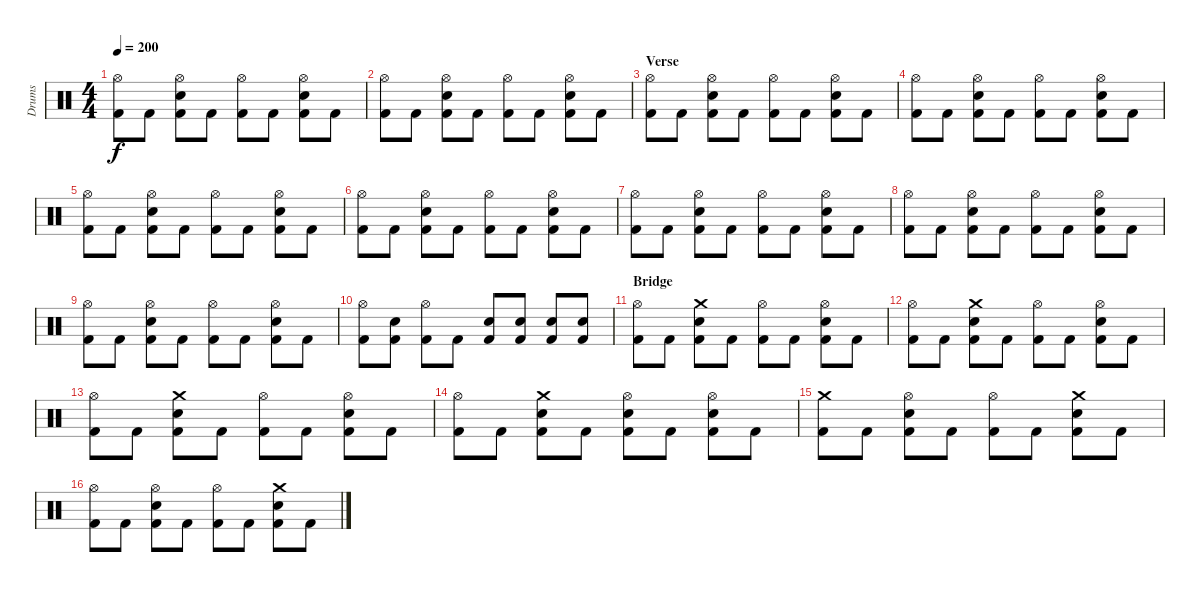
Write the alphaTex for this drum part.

\track ("Drums" "Drums") {instrument percussion}
\staff {score}
\articulation defaults
\ts (4 4)
\tempo 200
\clef neutral
\ks c
("Hi-Hat (open)" "Kick (hit) 2").8{dy f} "Kick (hit) 2".8 ("Hi-Hat (open)" "Snare (hit) 2" "Kick (hit) 2").8 "Kick (hit) 2".8 ("Hi-Hat (open)" "Kick (hit) 2").8 "Kick (hit) 2".8 ("Hi-Hat (open)" "Snare (hit) 2" "Kick (hit) 2").8 "Kick (hit) 2".8 |
("Hi-Hat (open)" "Kick (hit) 2").8 "Kick (hit) 2".8 ("Hi-Hat (open)" "Snare (hit) 2" "Kick (hit) 2").8 "Kick (hit) 2".8 ("Hi-Hat (open)" "Kick (hit) 2").8 "Kick (hit) 2".8 ("Hi-Hat (open)" "Snare (hit) 2" "Kick (hit) 2").8 "Kick (hit) 2".8 |
\section ("" "Verse")
("Hi-Hat (open)" "Kick (hit) 2").8 "Kick (hit) 2".8 ("Hi-Hat (open)" "Snare (hit) 2" "Kick (hit) 2").8 "Kick (hit) 2".8 ("Hi-Hat (open)" "Kick (hit) 2").8 "Kick (hit) 2".8 ("Hi-Hat (open)" "Snare (hit) 2" "Kick (hit) 2").8 "Kick (hit) 2".8 |
("Hi-Hat (open)" "Kick (hit) 2").8 "Kick (hit) 2".8 ("Hi-Hat (open)" "Snare (hit) 2" "Kick (hit) 2").8 "Kick (hit) 2".8 ("Hi-Hat (open)" "Kick (hit) 2").8 "Kick (hit) 2".8 ("Hi-Hat (open)" "Snare (hit) 2" "Kick (hit) 2").8 "Kick (hit) 2".8 |
("Hi-Hat (open)" "Kick (hit) 2").8 "Kick (hit) 2".8 ("Hi-Hat (open)" "Snare (hit) 2" "Kick (hit) 2").8 "Kick (hit) 2".8 ("Hi-Hat (open)" "Kick (hit) 2").8 "Kick (hit) 2".8 ("Hi-Hat (open)" "Snare (hit) 2" "Kick (hit) 2").8 "Kick (hit) 2".8 |
("Hi-Hat (open)" "Kick (hit) 2").8 "Kick (hit) 2".8 ("Hi-Hat (open)" "Snare (hit) 2" "Kick (hit) 2").8 "Kick (hit) 2".8 ("Hi-Hat (open)" "Kick (hit) 2").8 "Kick (hit) 2".8 ("Hi-Hat (open)" "Snare (hit) 2" "Kick (hit) 2").8 "Kick (hit) 2".8 |
("Hi-Hat (open)" "Kick (hit) 2").8 "Kick (hit) 2".8 ("Hi-Hat (open)" "Snare (hit) 2" "Kick (hit) 2").8 "Kick (hit) 2".8 ("Hi-Hat (open)" "Kick (hit) 2").8 "Kick (hit) 2".8 ("Hi-Hat (open)" "Snare (hit) 2" "Kick (hit) 2").8 "Kick (hit) 2".8 |
("Hi-Hat (open)" "Kick (hit) 2").8 "Kick (hit) 2".8 ("Hi-Hat (open)" "Snare (hit) 2" "Kick (hit) 2").8 "Kick (hit) 2".8 ("Hi-Hat (open)" "Kick (hit) 2").8 "Kick (hit) 2".8 ("Hi-Hat (open)" "Snare (hit) 2" "Kick (hit) 2").8 "Kick (hit) 2".8 |
("Hi-Hat (open)" "Kick (hit) 2").8 "Kick (hit) 2".8 ("Hi-Hat (open)" "Snare (hit) 2" "Kick (hit) 2").8 "Kick (hit) 2".8 ("Hi-Hat (open)" "Kick (hit) 2").8 "Kick (hit) 2".8 ("Hi-Hat (open)" "Snare (hit) 2" "Kick (hit) 2").8 "Kick (hit) 2".8 |
("Hi-Hat (open)" "Kick (hit) 2").8 ("Snare (hit) 2" "Kick (hit) 2").8 ("Hi-Hat (open)" "Kick (hit) 2").8 "Kick (hit) 2".8 ("Snare (hit) 2" "Kick (hit) 2").8 ("Snare (hit) 2" "Kick (hit) 2").8 ("Snare (hit) 2" "Kick (hit) 2").8 ("Snare (hit) 2" "Kick (hit) 2").8 |
\section ("" "Bridge")
("Hi-Hat (open)" "Kick (hit) 2").8 "Kick (hit) 2".8 ("Crash medium (hit)" "Snare (hit) 2" "Kick (hit) 2").8 "Kick (hit) 2".8 ("Hi-Hat (open)" "Kick (hit) 2").8 "Kick (hit) 2".8 ("Hi-Hat (open)" "Snare (hit) 2" "Kick (hit) 2").8 "Kick (hit) 2".8 |
("Hi-Hat (open)" "Kick (hit) 2").8 "Kick (hit) 2".8 ("Crash medium (hit)" "Snare (hit) 2" "Kick (hit) 2").8 "Kick (hit) 2".8 ("Hi-Hat (open)" "Kick (hit) 2").8 "Kick (hit) 2".8 ("Hi-Hat (open)" "Snare (hit) 2" "Kick (hit) 2").8 "Kick (hit) 2".8 |
("Hi-Hat (open)" "Kick (hit) 2").8 "Kick (hit) 2".8 ("Crash medium (hit)" "Snare (hit) 2" "Kick (hit) 2").8 "Kick (hit) 2".8 ("Hi-Hat (open)" "Kick (hit) 2").8 "Kick (hit) 2".8 ("Hi-Hat (open)" "Snare (hit) 2" "Kick (hit) 2").8 "Kick (hit) 2".8 |
("Hi-Hat (open)" "Kick (hit) 2").8 "Kick (hit) 2".8 ("Crash medium (hit)" "Snare (hit) 2" "Kick (hit) 2").8 "Kick (hit) 2".8 ("Hi-Hat (open)" "Snare (hit) 2" "Kick (hit) 2").8 "Kick (hit) 2".8 ("Hi-Hat (open)" "Snare (hit) 2" "Kick (hit) 2").8 "Kick (hit) 2".8 |
("Crash medium (hit)" "Kick (hit) 2").8 "Kick (hit) 2".8 ("Hi-Hat (open)" "Snare (hit) 2" "Kick (hit) 2").8 "Kick (hit) 2".8 ("Hi-Hat (open)" "Kick (hit) 2").8 "Kick (hit) 2".8 ("Crash medium (hit)" "Snare (hit) 2" "Kick (hit) 2").8 "Kick (hit) 2".8 |
("Hi-Hat (open)" "Kick (hit) 2").8 "Kick (hit) 2".8 ("Hi-Hat (open)" "Snare (hit) 2" "Kick (hit) 2").8 "Kick (hit) 2".8 ("Hi-Hat (open)" "Kick (hit) 2").8 "Kick (hit) 2".8 ("Crash medium (hit)" "Snare (hit) 2" "Kick (hit) 2").8 "Kick (hit) 2".8
